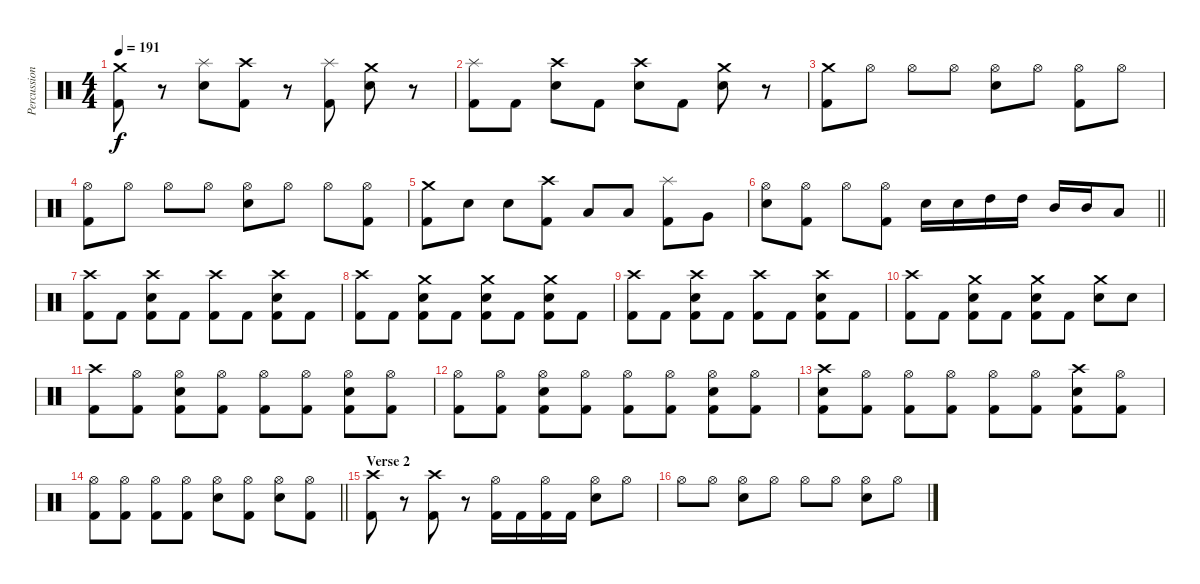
\track ("Percussion" "Percussion") {instrument percussion}
\staff {score}
\articulation defaults
\ts (4 4)
\tempo 191
\clef neutral
\ks c
("Crash medium (hit)" "Kick (hit) 2").8{dy f} r.8 ("Splash (hit)" "Electric Snare (hit)").8 ("Crash high (hit)" "Kick (hit) 2").8 r.8 ("Splash (hit)" "Kick (hit) 2").8 ("Crash medium (hit)" "Electric Snare (hit)").8 r.8 |
("Splash (hit)" "Kick (hit) 2").8 "Kick (hit) 2".8 ("Crash high (hit)" "Electric Snare (hit)").8 "Kick (hit) 2".8 ("Crash high (hit)" "Electric Snare (hit)").8 "Kick (hit) 2".8 ("Crash medium (hit)" "Electric Snare (hit)").8 r.8 |
("Crash medium (hit)" "Kick (hit) 2").8 "Hi-Hat (open)".8 "Hi-Hat (open)".8 "Hi-Hat (open)".8 ("Hi-Hat (open)" "Electric Snare (hit)").8 "Hi-Hat (open)".8 ("Hi-Hat (open)" "Kick (hit) 2").8 "Hi-Hat (open)".8 |
("Hi-Hat (open)" "Kick (hit) 2").8 "Hi-Hat (open)".8 "Hi-Hat (open)".8 "Hi-Hat (open)".8 ("Hi-Hat (open)" "Electric Snare (hit)").8 "Hi-Hat (open)".8 "Hi-Hat (open)".8 ("Hi-Hat (open)" "Kick (hit) 2").8 |
("Crash medium (hit)" "Kick (hit) 2").8 "Electric Snare (hit)".8 "Electric Snare (hit)".8 ("Crash high (hit)" "Kick (hit) 2").8 "Low Tom (hit)".8 "Low Tom (hit)".8 ("Splash (hit)" "Kick (hit) 2").8 "Very Low Tom (hit)".8 |
\barLineRight lightlight
("Hi-Hat (open)" "Electric Snare (hit)").8 ("Hi-Hat (open)" "Kick (hit) 2").8 "Hi-Hat (open)".8 ("Hi-Hat (open)" "Kick (hit) 2").8 "Electric Snare (hit)".16 "Electric Snare (hit)".16 "High Tom (hit)".16 "High Tom (hit)".16 "Mid Tom (hit)".16 "Mid Tom (hit)".16 "Low Tom (hit)".8 |
("Crash high (hit)" "Kick (hit) 2").8 "Kick (hit) 2".8 ("Crash high (hit)" "Electric Snare (hit)" "Kick (hit) 2").8 "Kick (hit) 2".8 ("Crash high (hit)" "Kick (hit) 2").8 "Kick (hit) 2".8 ("Crash high (hit)" "Electric Snare (hit)" "Kick (hit) 2").8 "Kick (hit) 2".8 |
("Crash high (hit)" "Kick (hit) 2").8 "Kick (hit) 2".8 ("Crash medium (hit)" "Electric Snare (hit)" "Kick (hit) 2").8 "Kick (hit) 2".8 ("Crash medium (hit)" "Electric Snare (hit)" "Kick (hit) 2").8 "Kick (hit) 2".8 ("Crash medium (hit)" "Electric Snare (hit)" "Kick (hit) 2").8 "Kick (hit) 2".8 |
("Crash high (hit)" "Kick (hit) 2").8 "Kick (hit) 2".8 ("Crash high (hit)" "Electric Snare (hit)" "Kick (hit) 2").8 "Kick (hit) 2".8 ("Crash high (hit)" "Kick (hit) 2").8 "Kick (hit) 2".8 ("Crash high (hit)" "Electric Snare (hit)" "Kick (hit) 2").8 "Kick (hit) 2".8 |
("Crash high (hit)" "Kick (hit) 2").8 "Kick (hit) 2".8 ("Crash medium (hit)" "Electric Snare (hit)" "Kick (hit) 2").8 "Kick (hit) 2".8 ("Crash medium (hit)" "Electric Snare (hit)" "Kick (hit) 2").8 "Kick (hit) 2".8 ("Crash medium (hit)" "Electric Snare (hit)").8 "Electric Snare (hit)".8 |
("Crash high (hit)" "Kick (hit) 2").8 ("Hi-Hat (open)" "Kick (hit) 2").8 ("Hi-Hat (open)" "Electric Snare (hit)" "Kick (hit) 2").8 ("Hi-Hat (open)" "Kick (hit) 2").8 ("Hi-Hat (open)" "Kick (hit) 2").8 ("Hi-Hat (open)" "Kick (hit) 2").8 ("Hi-Hat (open)" "Electric Snare (hit)" "Kick (hit) 2").8 ("Hi-Hat (open)" "Kick (hit) 2").8 |
("Hi-Hat (open)" "Kick (hit) 2").8 ("Hi-Hat (open)" "Kick (hit) 2").8 ("Hi-Hat (open)" "Electric Snare (hit)" "Kick (hit) 2").8 ("Hi-Hat (open)" "Kick (hit) 2").8 ("Hi-Hat (open)" "Kick (hit) 2").8 ("Hi-Hat (open)" "Kick (hit) 2").8 ("Hi-Hat (open)" "Electric Snare (hit)" "Kick (hit) 2").8 ("Hi-Hat (open)" "Kick (hit) 2").8 |
("Crash high (hit)" "Electric Snare (hit)" "Kick (hit) 2").8 ("Hi-Hat (open)" "Kick (hit) 2").8 ("Hi-Hat (open)" "Kick (hit) 2").8 ("Hi-Hat (open)" "Kick (hit) 2").8 ("Hi-Hat (open)" "Kick (hit) 2").8 ("Hi-Hat (open)" "Kick (hit) 2").8 ("Crash high (hit)" "Electric Snare (hit)" "Kick (hit) 2").8 ("Hi-Hat (open)" "Kick (hit) 2").8 |
\barLineRight lightlight
("Hi-Hat (open)" "Kick (hit) 2").8 ("Hi-Hat (open)" "Kick (hit) 2").8 ("Hi-Hat (open)" "Kick (hit) 2").8 ("Hi-Hat (open)" "Kick (hit) 2").8 ("Hi-Hat (open)" "Electric Snare (hit)").8 ("Hi-Hat (open)" "Kick (hit) 2").8 ("Hi-Hat (open)" "Electric Snare (hit)").8 ("Hi-Hat (open)" "Kick (hit) 2").8 |
\section ("" "Verse 2")
("Crash high (hit)" "Kick (hit) 2").8 r.8 ("Crash high (hit)" "Kick (hit) 2").8 r.8 ("Hi-Hat (open)" "Kick (hit) 2").16 "Kick (hit) 2".16 ("Hi-Hat (open)" "Kick (hit) 2").16 "Kick (hit) 2".16 ("Hi-Hat (open)" "Electric Snare (hit)").8 "Hi-Hat (open)".8 |
"Hi-Hat (open)".8 "Hi-Hat (open)".8 ("Hi-Hat (open)" "Electric Snare (hit)").8 "Hi-Hat (open)".8 "Hi-Hat (open)".8 "Hi-Hat (open)".8 ("Hi-Hat (open)" "Electric Snare (hit)").8 "Hi-Hat (open)".8
